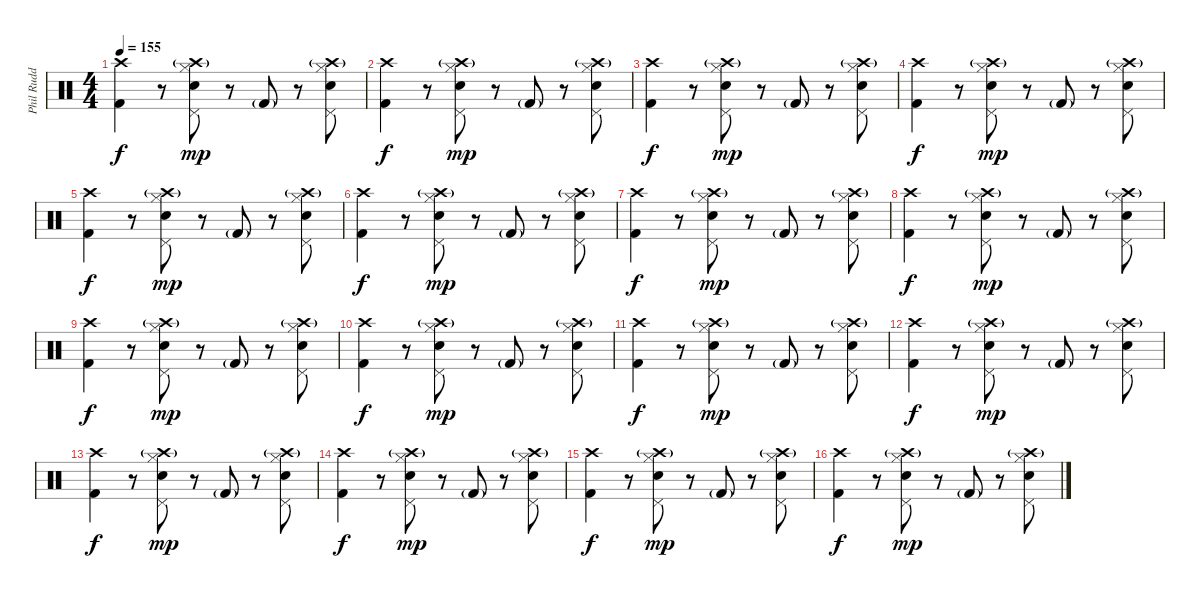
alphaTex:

\track ("Phil Rudd" "Phil Rudd") {instrument percussion}
\staff {score}
\articulation defaults
\ts (4 4)
\tempo 155
\clef neutral
\ks c
("Kick (hit) 2" "Crash high (hit)").4{dy f} r.8 ("Snare (hit) 2" "Pedal Hi-Hat (hit)" "Hi-Hat (closed)" "Crash high (hit)"{g}).8{dy mp} r.8 "Kick (hit) 2"{g}.8 r.8 ("Snare (hit) 2" "Pedal Hi-Hat (hit)" "Hi-Hat (closed)" "Crash high (hit)"{g}).8 |
("Crash high (hit)" "Kick (hit) 2").4{dy f} r.8 ("Snare (hit) 2" "Pedal Hi-Hat (hit)" "Hi-Hat (closed)" "Crash high (hit)"{g}).8{dy mp} r.8 "Kick (hit) 2"{g}.8 r.8 ("Snare (hit) 2" "Pedal Hi-Hat (hit)" "Hi-Hat (closed)" "Crash high (hit)"{g}).8 |
("Kick (hit) 2" "Crash high (hit)").4{dy f} r.8 ("Snare (hit) 2" "Pedal Hi-Hat (hit)" "Hi-Hat (closed)" "Crash high (hit)"{g}).8{dy mp} r.8 "Kick (hit) 2"{g}.8 r.8 ("Snare (hit) 2" "Pedal Hi-Hat (hit)" "Hi-Hat (closed)" "Crash high (hit)"{g}).8 |
("Crash high (hit)" "Kick (hit) 2").4{dy f} r.8 ("Snare (hit) 2" "Pedal Hi-Hat (hit)" "Hi-Hat (closed)" "Crash high (hit)"{g}).8{dy mp} r.8 "Kick (hit) 2"{g}.8 r.8 ("Snare (hit) 2" "Pedal Hi-Hat (hit)" "Hi-Hat (closed)" "Crash high (hit)"{g}).8 |
("Kick (hit) 2" "Crash high (hit)").4{dy f} r.8 ("Snare (hit) 2" "Pedal Hi-Hat (hit)" "Hi-Hat (closed)" "Crash high (hit)"{g}).8{dy mp} r.8 "Kick (hit) 2"{g}.8 r.8 ("Snare (hit) 2" "Pedal Hi-Hat (hit)" "Hi-Hat (closed)" "Crash high (hit)"{g}).8 |
("Crash high (hit)" "Kick (hit) 2").4{dy f} r.8 ("Snare (hit) 2" "Pedal Hi-Hat (hit)" "Hi-Hat (closed)" "Crash high (hit)"{g}).8{dy mp} r.8 "Kick (hit) 2"{g}.8 r.8 ("Snare (hit) 2" "Pedal Hi-Hat (hit)" "Hi-Hat (closed)" "Crash high (hit)"{g}).8 |
("Kick (hit) 2" "Crash high (hit)").4{dy f} r.8 ("Snare (hit) 2" "Pedal Hi-Hat (hit)" "Hi-Hat (closed)" "Crash high (hit)"{g}).8{dy mp} r.8 "Kick (hit) 2"{g}.8 r.8 ("Snare (hit) 2" "Pedal Hi-Hat (hit)" "Hi-Hat (closed)" "Crash high (hit)"{g}).8 |
("Crash high (hit)" "Kick (hit) 2").4{dy f} r.8 ("Snare (hit) 2" "Pedal Hi-Hat (hit)" "Hi-Hat (closed)" "Crash high (hit)"{g}).8{dy mp} r.8 "Kick (hit) 2"{g}.8 r.8 ("Snare (hit) 2" "Pedal Hi-Hat (hit)" "Hi-Hat (closed)" "Crash high (hit)"{g}).8 |
("Kick (hit) 2" "Crash high (hit)").4{dy f} r.8 ("Snare (hit) 2" "Pedal Hi-Hat (hit)" "Hi-Hat (closed)" "Crash high (hit)"{g}).8{dy mp} r.8 "Kick (hit) 2"{g}.8 r.8 ("Snare (hit) 2" "Pedal Hi-Hat (hit)" "Hi-Hat (closed)" "Crash high (hit)"{g}).8 |
("Crash high (hit)" "Kick (hit) 2").4{dy f} r.8 ("Snare (hit) 2" "Pedal Hi-Hat (hit)" "Hi-Hat (closed)" "Crash high (hit)"{g}).8{dy mp} r.8 "Kick (hit) 2"{g}.8 r.8 ("Snare (hit) 2" "Pedal Hi-Hat (hit)" "Hi-Hat (closed)" "Crash high (hit)"{g}).8 |
("Kick (hit) 2" "Crash high (hit)").4{dy f} r.8 ("Snare (hit) 2" "Pedal Hi-Hat (hit)" "Hi-Hat (closed)" "Crash high (hit)"{g}).8{dy mp} r.8 "Kick (hit) 2"{g}.8 r.8 ("Snare (hit) 2" "Pedal Hi-Hat (hit)" "Hi-Hat (closed)" "Crash high (hit)"{g}).8 |
("Crash high (hit)" "Kick (hit) 2").4{dy f} r.8 ("Snare (hit) 2" "Pedal Hi-Hat (hit)" "Hi-Hat (closed)" "Crash high (hit)"{g}).8{dy mp} r.8 "Kick (hit) 2"{g}.8 r.8 ("Snare (hit) 2" "Pedal Hi-Hat (hit)" "Hi-Hat (closed)" "Crash high (hit)"{g}).8 |
("Kick (hit) 2" "Crash high (hit)").4{dy f} r.8 ("Snare (hit) 2" "Pedal Hi-Hat (hit)" "Hi-Hat (closed)" "Crash high (hit)"{g}).8{dy mp} r.8 "Kick (hit) 2"{g}.8 r.8 ("Snare (hit) 2" "Pedal Hi-Hat (hit)" "Hi-Hat (closed)" "Crash high (hit)"{g}).8 |
("Crash high (hit)" "Kick (hit) 2").4{dy f} r.8 ("Snare (hit) 2" "Pedal Hi-Hat (hit)" "Hi-Hat (closed)" "Crash high (hit)"{g}).8{dy mp} r.8 "Kick (hit) 2"{g}.8 r.8 ("Snare (hit) 2" "Pedal Hi-Hat (hit)" "Hi-Hat (closed)" "Crash high (hit)"{g}).8 |
("Kick (hit) 2" "Crash high (hit)").4{dy f} r.8 ("Snare (hit) 2" "Pedal Hi-Hat (hit)" "Hi-Hat (closed)" "Crash high (hit)"{g}).8{dy mp} r.8 "Kick (hit) 2"{g}.8 r.8 ("Snare (hit) 2" "Pedal Hi-Hat (hit)" "Hi-Hat (closed)" "Crash high (hit)"{g}).8 |
("Crash high (hit)" "Kick (hit) 2").4{dy f} r.8 ("Snare (hit) 2" "Pedal Hi-Hat (hit)" "Hi-Hat (closed)" "Crash high (hit)"{g}).8{dy mp} r.8 "Kick (hit) 2"{g}.8 r.8 ("Snare (hit) 2" "Pedal Hi-Hat (hit)" "Hi-Hat (closed)" "Crash high (hit)"{g}).8
